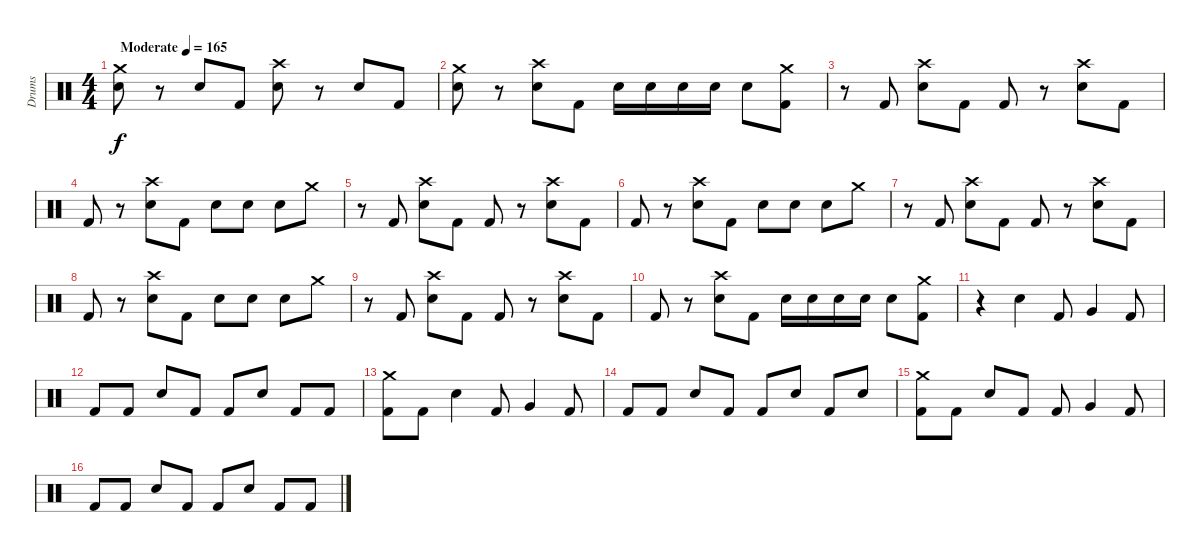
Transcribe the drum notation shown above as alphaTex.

\track ("Drums" "Drums") {instrument percussion}
\staff {score}
\articulation defaults
\ts (4 4)
\tempo (165 "Moderate")
\clef neutral
\ks c
("Crash medium (hit)" "Snare (hit) 2").8{dy f} r.8 "Snare (hit) 2".8 "Kick (hit) 2".8 ("Crash high (hit)" "Snare (hit) 2").8 r.8 "Snare (hit) 2".8 "Kick (hit) 2".8 |
("Crash medium (hit)" "Snare (hit) 2").8 r.8 ("Crash high (hit)" "Snare (hit) 2").8 "Kick (hit) 2".8 "Snare (hit) 2".16 "Snare (hit) 2".16 "Snare (hit) 2".16 "Snare (hit) 2".16 "Snare (hit) 2".8 ("Crash medium (hit)" "Kick (hit) 2").8 |
r.8 "Kick (hit) 2".8 ("Crash high (hit)" "Snare (hit) 2").8 "Kick (hit) 2".8 "Kick (hit) 2".8 r.8 ("Crash high (hit)" "Snare (hit) 2").8 "Kick (hit) 2".8 |
"Kick (hit) 2".8 r.8 ("Crash high (hit)" "Snare (hit) 2").8 "Kick (hit) 2".8 "Snare (hit) 2".8 "Snare (hit) 2".8 "Snare (hit) 2".8 "Crash medium (hit)".8 |
r.8 "Kick (hit) 2".8 ("Crash high (hit)" "Snare (hit) 2").8 "Kick (hit) 2".8 "Kick (hit) 2".8 r.8 ("Crash high (hit)" "Snare (hit) 2").8 "Kick (hit) 2".8 |
"Kick (hit) 2".8 r.8 ("Crash high (hit)" "Snare (hit) 2").8 "Kick (hit) 2".8 "Snare (hit) 2".8 "Snare (hit) 2".8 "Snare (hit) 2".8 "Crash medium (hit)".8 |
r.8 "Kick (hit) 2".8 ("Crash high (hit)" "Snare (hit) 2").8 "Kick (hit) 2".8 "Kick (hit) 2".8 r.8 ("Crash high (hit)" "Snare (hit) 2").8 "Kick (hit) 2".8 |
"Kick (hit) 2".8 r.8 ("Crash high (hit)" "Snare (hit) 2").8 "Kick (hit) 2".8 "Snare (hit) 2".8 "Snare (hit) 2".8 "Snare (hit) 2".8 "Crash medium (hit)".8 |
r.8 "Kick (hit) 2".8 ("Crash high (hit)" "Snare (hit) 2").8 "Kick (hit) 2".8 "Kick (hit) 2".8 r.8 ("Crash high (hit)" "Snare (hit) 2").8 "Kick (hit) 2".8 |
"Kick (hit) 2".8 r.8 ("Crash high (hit)" "Snare (hit) 2").8 "Kick (hit) 2".8 "Snare (hit) 2".16 "Snare (hit) 2".16 "Snare (hit) 2".16 "Snare (hit) 2".16 "Snare (hit) 2".8 ("Crash medium (hit)" "Kick (hit) 2").8 |
r.4 "Snare (hit) 2".4 "Kick (hit) 2".8 "Very Low Tom (hit)".4 "Kick (hit) 2".8 |
"Kick (hit) 2".8 "Kick (hit) 2".8 "Snare (hit) 2".8 "Kick (hit) 2".8 "Kick (hit) 2".8 "Snare (hit) 2".8 "Kick (hit) 2".8 "Kick (hit) 2".8 |
("Crash medium (hit)" "Kick (hit) 2").8 "Kick (hit) 2".8 "Snare (hit) 2".4 "Kick (hit) 2".8 "Very Low Tom (hit)".4 "Kick (hit) 2".8 |
"Kick (hit) 2".8 "Kick (hit) 2".8 "Snare (hit) 2".8 "Kick (hit) 2".8 "Kick (hit) 2".8 "Snare (hit) 2".8 "Kick (hit) 2".8 "Snare (hit) 2".8 |
("Crash medium (hit)" "Kick (hit) 2").8 "Kick (hit) 2".8 "Snare (hit) 2".8 "Kick (hit) 2".8 "Kick (hit) 2".8 "Very Low Tom (hit)".4 "Kick (hit) 2".8 |
"Kick (hit) 2".8 "Kick (hit) 2".8 "Snare (hit) 2".8 "Kick (hit) 2".8 "Kick (hit) 2".8 "Snare (hit) 2".8 "Kick (hit) 2".8 "Kick (hit) 2".8
